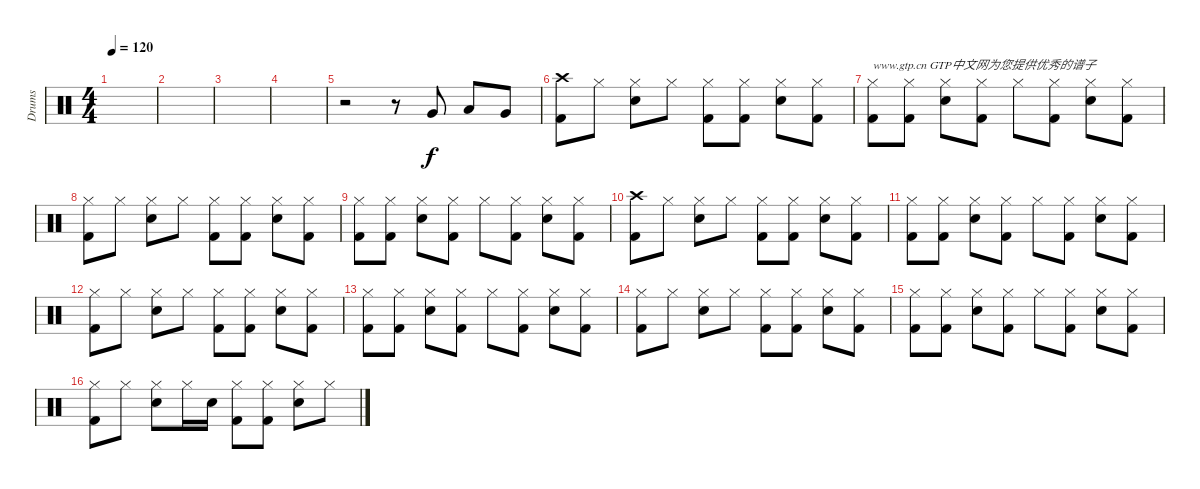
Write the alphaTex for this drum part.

\track ("Drums" "Drums") {instrument percussion}
\staff {score}
\articulation defaults
\ts (4 4)
\tempo 120
\clef neutral
\ks c
|
|
|
|
r.2 r.8 "Very Low Tom (hit)".8 "Low Tom (hit)".8 "Very Low Tom (hit)".8 |
("Crash high (hit)" "Kick (hit) 2").8 "Hi-Hat (closed)".8 ("Hi-Hat (closed)" "Snare (hit) 2").8 "Hi-Hat (closed)".8 ("Hi-Hat (closed)" "Kick (hit) 2").8 ("Hi-Hat (closed)" "Kick (hit) 2").8 ("Hi-Hat (closed)" "Snare (hit) 2").8 ("Hi-Hat (closed)" "Kick (hit) 2").8 |
("Hi-Hat (closed)" "Kick (hit) 2").8{txt "www.gtp.cn GTP中文网为您提供优秀的谱子"} ("Hi-Hat (closed)" "Kick (hit) 2").8 ("Hi-Hat (closed)" "Snare (hit) 2").8 ("Hi-Hat (closed)" "Kick (hit) 2").8 "Hi-Hat (closed)".8 ("Hi-Hat (closed)" "Kick (hit) 2").8 ("Hi-Hat (closed)" "Snare (hit) 2").8 ("Hi-Hat (closed)" "Kick (hit) 2").8 |
("Hi-Hat (closed)" "Kick (hit) 2").8 "Hi-Hat (closed)".8 ("Hi-Hat (closed)" "Snare (hit) 2").8 "Hi-Hat (closed)".8 ("Hi-Hat (closed)" "Kick (hit) 2").8 ("Hi-Hat (closed)" "Kick (hit) 2").8 ("Hi-Hat (closed)" "Snare (hit) 2").8 ("Hi-Hat (closed)" "Kick (hit) 2").8 |
("Hi-Hat (closed)" "Kick (hit) 2").8 ("Hi-Hat (closed)" "Kick (hit) 2").8 ("Hi-Hat (closed)" "Snare (hit) 2").8 ("Hi-Hat (closed)" "Kick (hit) 2").8 "Hi-Hat (closed)".8 ("Hi-Hat (closed)" "Kick (hit) 2").8 ("Hi-Hat (closed)" "Snare (hit) 2").8 ("Hi-Hat (closed)" "Kick (hit) 2").8 |
("Crash high (hit)" "Kick (hit) 2").8 "Hi-Hat (closed)".8 ("Hi-Hat (closed)" "Snare (hit) 2").8 "Hi-Hat (closed)".8 ("Hi-Hat (closed)" "Kick (hit) 2").8 ("Hi-Hat (closed)" "Kick (hit) 2").8 ("Hi-Hat (closed)" "Snare (hit) 2").8 ("Hi-Hat (closed)" "Kick (hit) 2").8 |
("Hi-Hat (closed)" "Kick (hit) 2").8 ("Hi-Hat (closed)" "Kick (hit) 2").8 ("Hi-Hat (closed)" "Snare (hit) 2").8 ("Hi-Hat (closed)" "Kick (hit) 2").8 "Hi-Hat (closed)".8 ("Hi-Hat (closed)" "Kick (hit) 2").8 ("Hi-Hat (closed)" "Snare (hit) 2").8 ("Hi-Hat (closed)" "Kick (hit) 2").8 |
("Hi-Hat (closed)" "Kick (hit) 2").8 "Hi-Hat (closed)".8 ("Hi-Hat (closed)" "Snare (hit) 2").8 "Hi-Hat (closed)".8 ("Hi-Hat (closed)" "Kick (hit) 2").8 ("Hi-Hat (closed)" "Kick (hit) 2").8 ("Hi-Hat (closed)" "Snare (hit) 2").8 ("Hi-Hat (closed)" "Kick (hit) 2").8 |
("Hi-Hat (closed)" "Kick (hit) 2").8 ("Hi-Hat (closed)" "Kick (hit) 2").8 ("Hi-Hat (closed)" "Snare (hit) 2").8 ("Hi-Hat (closed)" "Kick (hit) 2").8 "Hi-Hat (closed)".8 ("Hi-Hat (closed)" "Kick (hit) 2").8 ("Hi-Hat (closed)" "Snare (hit) 2").8 ("Hi-Hat (closed)" "Kick (hit) 2").8 |
("Hi-Hat (closed)" "Kick (hit) 2").8 "Hi-Hat (closed)".8 ("Hi-Hat (closed)" "Snare (hit) 2").8 "Hi-Hat (closed)".8 ("Hi-Hat (closed)" "Kick (hit) 2").8 ("Hi-Hat (closed)" "Kick (hit) 2").8 ("Hi-Hat (closed)" "Snare (hit) 2").8 ("Hi-Hat (closed)" "Kick (hit) 2").8 |
("Hi-Hat (closed)" "Kick (hit) 2").8 ("Hi-Hat (closed)" "Kick (hit) 2").8 ("Hi-Hat (closed)" "Snare (hit) 2").8 ("Hi-Hat (closed)" "Kick (hit) 2").8 "Hi-Hat (closed)".8 ("Hi-Hat (closed)" "Kick (hit) 2").8 ("Hi-Hat (closed)" "Snare (hit) 2").8 ("Hi-Hat (closed)" "Kick (hit) 2").8 |
("Hi-Hat (closed)" "Kick (hit) 2").8 "Hi-Hat (closed)".8 ("Hi-Hat (closed)" "Snare (hit) 2").8 "Hi-Hat (closed)".16 "Snare (hit) 2".16 ("Hi-Hat (closed)" "Kick (hit) 2").8 ("Hi-Hat (closed)" "Kick (hit) 2").8 ("Hi-Hat (closed)" "Snare (hit) 2").8 "Hi-Hat (closed)".8
